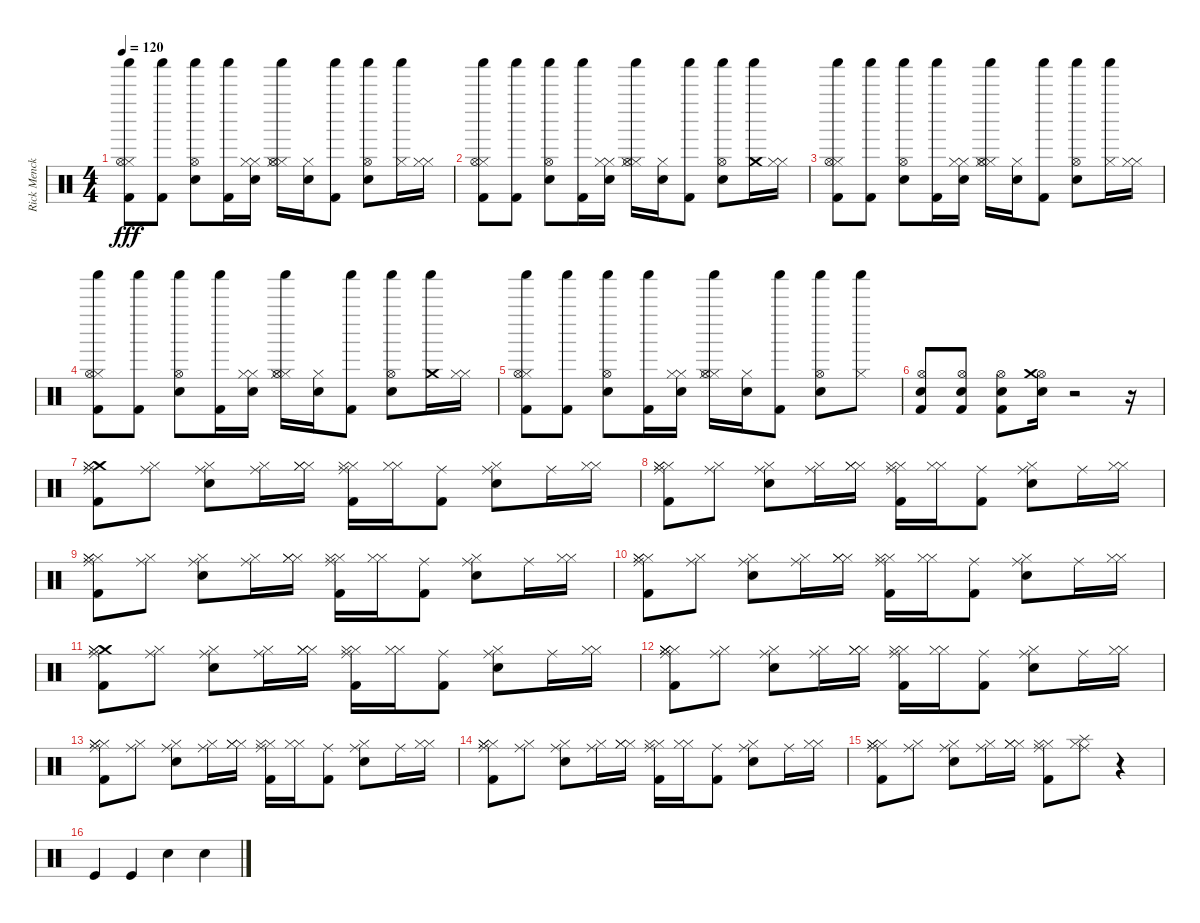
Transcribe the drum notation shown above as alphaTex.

\track ("Rick Menck" "Rick Menck") {instrument percussion}
\staff {score}
\articulation defaults
\ts (4 4)
\tempo 120
\clef neutral
\ks c
("Shaker (hit)" "Kick (hit) 2" "Hi-Hat (closed)" "Hi-Hat (open)").8{dy fff} ("Shaker (hit)" "Kick (hit) 2").8 ("Shaker (hit)" "Snare (hit) 2" "Hi-Hat (open)").8 ("Shaker (hit)" "Kick (hit) 2").16 ("Hi-Hat (closed)" "Snare (hit) 2" "Hi-Hat (closed)").16 ("Shaker (hit)" "Hi-Hat (closed)" "Hi-Hat (open)" "Hi-Hat (closed)").16 ("Hi-Hat (closed)" "Snare (hit) 2").16 ("Shaker (hit)" "Kick (hit) 2").8 ("Shaker (hit)" "Snare (hit) 2" "Hi-Hat (open)").8 ("Shaker (hit)" "Hi-Hat (closed)").16 ("Hi-Hat (closed)" "Hi-Hat (closed)").16 |
("Shaker (hit)" "Kick (hit) 2" "Hi-Hat (closed)" "Hi-Hat (open)").8 ("Shaker (hit)" "Kick (hit) 2").8 ("Shaker (hit)" "Snare (hit) 2" "Hi-Hat (open)").8 ("Shaker (hit)" "Kick (hit) 2").16 ("Hi-Hat (closed)" "Snare (hit) 2" "Hi-Hat (closed)").16 ("Shaker (hit)" "Hi-Hat (closed)" "Hi-Hat (open)" "Hi-Hat (closed)").16 ("Hi-Hat (closed)" "Snare (hit) 2").16 ("Shaker (hit)" "Kick (hit) 2").8 ("Shaker (hit)" "Snare (hit) 2" "Hi-Hat (open)").8 ("Shaker (hit)" "Crash medium (hit)").16 ("Hi-Hat (closed)" "Hi-Hat (closed)").16 |
("Shaker (hit)" "Kick (hit) 2" "Hi-Hat (closed)" "Hi-Hat (open)").8 ("Shaker (hit)" "Kick (hit) 2").8 ("Shaker (hit)" "Snare (hit) 2" "Hi-Hat (open)").8 ("Shaker (hit)" "Kick (hit) 2").16 ("Hi-Hat (closed)" "Snare (hit) 2" "Hi-Hat (closed)").16 ("Shaker (hit)" "Hi-Hat (closed)" "Hi-Hat (open)" "Hi-Hat (closed)").16 ("Hi-Hat (closed)" "Snare (hit) 2").16 ("Shaker (hit)" "Kick (hit) 2").8 ("Shaker (hit)" "Snare (hit) 2" "Hi-Hat (open)").8 ("Shaker (hit)" "Hi-Hat (closed)").16 ("Hi-Hat (closed)" "Hi-Hat (closed)").16 |
("Shaker (hit)" "Kick (hit) 2" "Hi-Hat (closed)" "Hi-Hat (open)").8 ("Shaker (hit)" "Kick (hit) 2").8 ("Shaker (hit)" "Snare (hit) 2" "Hi-Hat (open)").8 ("Shaker (hit)" "Kick (hit) 2").16 ("Hi-Hat (closed)" "Snare (hit) 2" "Hi-Hat (closed)").16 ("Shaker (hit)" "Hi-Hat (closed)" "Hi-Hat (open)" "Hi-Hat (closed)").16 ("Hi-Hat (closed)" "Snare (hit) 2").16 ("Shaker (hit)" "Kick (hit) 2").8 ("Shaker (hit)" "Snare (hit) 2" "Hi-Hat (open)").8 ("Shaker (hit)" "Crash medium (hit)").16 ("Hi-Hat (closed)" "Hi-Hat (closed)").16 |
("Shaker (hit)" "Kick (hit) 2" "Hi-Hat (closed)" "Hi-Hat (open)").8 ("Shaker (hit)" "Kick (hit) 2").8 ("Shaker (hit)" "Snare (hit) 2" "Hi-Hat (open)").8 ("Shaker (hit)" "Kick (hit) 2").16 ("Hi-Hat (closed)" "Snare (hit) 2" "Hi-Hat (closed)").16 ("Shaker (hit)" "Hi-Hat (closed)" "Hi-Hat (open)" "Hi-Hat (closed)").16 ("Hi-Hat (closed)" "Snare (hit) 2").16 ("Shaker (hit)" "Kick (hit) 2").8 ("Shaker (hit)" "Snare (hit) 2" "Hi-Hat (open)").8 ("Shaker (hit)" "Hi-Hat (closed)").8 |
("Hi-Hat (open)" "Kick (hit) 2" "Snare (hit) 2").8 ("Hi-Hat (open)" "Kick (hit) 2" "Snare (hit) 2").8 ("Hi-Hat (open)" "Kick (hit) 2" "Snare (hit) 2").8 ("Hi-Hat (open)" "Crash medium (hit)" "Snare (hit) 2").16 r.2 r.16 |
("Ride (middle)" "Crash medium (hit)" "Kick (hit) 2" "Hi-Hat (closed)" "Hi-Hat (closed)").8 ("Ride (middle)" "Hi-Hat (closed)").8 ("Ride (middle)" "Snare (hit) 2" "Hi-Hat (closed)").8 ("Ride (middle)" "Hi-Hat (closed)").16 ("Hi-Hat (closed)" "Hi-Hat (closed)" "Hi-Hat (closed)").16 ("Ride (middle)" "Kick (hit) 2" "Hi-Hat (closed)" "Hi-Hat (closed)").16 ("Hi-Hat (closed)" "Hi-Hat (closed)").16 ("Ride (middle)" "Kick (hit) 2").8 ("Ride (middle)" "Snare (hit) 2" "Hi-Hat (closed)").8 "Ride (middle)".16 ("Hi-Hat (closed)" "Hi-Hat (closed)").16 |
("Ride (middle)" "Hi-Hat (closed)" "Kick (hit) 2" "Hi-Hat (closed)" "Hi-Hat (closed)").8 ("Ride (middle)" "Hi-Hat (closed)").8 ("Ride (middle)" "Snare (hit) 2" "Hi-Hat (closed)").8 ("Ride (middle)" "Hi-Hat (closed)").16 ("Hi-Hat (closed)" "Hi-Hat (closed)" "Hi-Hat (closed)").16 ("Ride (middle)" "Kick (hit) 2" "Hi-Hat (closed)" "Hi-Hat (closed)").16 ("Hi-Hat (closed)" "Hi-Hat (closed)").16 ("Ride (middle)" "Kick (hit) 2").8 ("Ride (middle)" "Snare (hit) 2" "Hi-Hat (closed)").8 "Ride (middle)".16 ("Hi-Hat (closed)" "Hi-Hat (closed)").16 |
("Ride (middle)" "Hi-Hat (closed)" "Kick (hit) 2" "Hi-Hat (closed)" "Hi-Hat (closed)").8 ("Ride (middle)" "Hi-Hat (closed)").8 ("Ride (middle)" "Snare (hit) 2" "Hi-Hat (closed)").8 ("Ride (middle)" "Hi-Hat (closed)").16 ("Hi-Hat (closed)" "Hi-Hat (closed)" "Hi-Hat (closed)").16 ("Ride (middle)" "Kick (hit) 2" "Hi-Hat (closed)" "Hi-Hat (closed)").16 ("Hi-Hat (closed)" "Hi-Hat (closed)").16 ("Ride (middle)" "Kick (hit) 2").8 ("Ride (middle)" "Snare (hit) 2" "Hi-Hat (closed)").8 "Ride (middle)".16 ("Hi-Hat (closed)" "Hi-Hat (closed)").16 |
("Ride (middle)" "Hi-Hat (closed)" "Kick (hit) 2" "Hi-Hat (closed)" "Hi-Hat (closed)").8 ("Ride (middle)" "Hi-Hat (closed)").8 ("Ride (middle)" "Snare (hit) 2" "Hi-Hat (closed)").8 ("Ride (middle)" "Hi-Hat (closed)").16 ("Hi-Hat (closed)" "Hi-Hat (closed)" "Hi-Hat (closed)").16 ("Ride (middle)" "Kick (hit) 2" "Hi-Hat (closed)" "Hi-Hat (closed)").16 ("Hi-Hat (closed)" "Hi-Hat (closed)").16 ("Ride (middle)" "Kick (hit) 2").8 ("Ride (middle)" "Snare (hit) 2" "Hi-Hat (closed)").8 "Ride (middle)".16 ("Hi-Hat (closed)" "Hi-Hat (closed)").16 |
("Ride (middle)" "Crash medium (hit)" "Kick (hit) 2" "Hi-Hat (closed)" "Hi-Hat (closed)").8 ("Ride (middle)" "Hi-Hat (closed)").8 ("Ride (middle)" "Snare (hit) 2" "Hi-Hat (closed)").8 ("Ride (middle)" "Hi-Hat (closed)").16 ("Hi-Hat (closed)" "Hi-Hat (closed)" "Hi-Hat (closed)").16 ("Ride (middle)" "Kick (hit) 2" "Hi-Hat (closed)" "Hi-Hat (closed)").16 ("Hi-Hat (closed)" "Hi-Hat (closed)").16 ("Ride (middle)" "Kick (hit) 2").8 ("Ride (middle)" "Snare (hit) 2" "Hi-Hat (closed)").8 "Ride (middle)".16 ("Hi-Hat (closed)" "Hi-Hat (closed)").16 |
("Ride (middle)" "Hi-Hat (closed)" "Hi-Hat (closed)" "Kick (hit) 2" "Hi-Hat (closed)" "Hi-Hat (closed)").8 ("Ride (middle)" "Hi-Hat (closed)").8 ("Ride (middle)" "Snare (hit) 2" "Hi-Hat (closed)").8 ("Ride (middle)" "Hi-Hat (closed)").16 ("Hi-Hat (closed)" "Hi-Hat (closed)" "Hi-Hat (closed)").16 ("Ride (middle)" "Kick (hit) 2" "Hi-Hat (closed)" "Hi-Hat (closed)").16 ("Hi-Hat (closed)" "Hi-Hat (closed)").16 ("Ride (middle)" "Kick (hit) 2").8 ("Ride (middle)" "Snare (hit) 2" "Hi-Hat (closed)").8 "Ride (middle)".16 ("Hi-Hat (closed)" "Hi-Hat (closed)").16 |
("Ride (middle)" "Hi-Hat (closed)" "Kick (hit) 2" "Hi-Hat (closed)" "Hi-Hat (closed)").8 ("Ride (middle)" "Hi-Hat (closed)").8 ("Ride (middle)" "Snare (hit) 2" "Hi-Hat (closed)").8 ("Ride (middle)" "Hi-Hat (closed)").16 ("Hi-Hat (closed)" "Hi-Hat (closed)" "Hi-Hat (closed)").16 ("Ride (middle)" "Kick (hit) 2" "Hi-Hat (closed)" "Hi-Hat (closed)").16 ("Hi-Hat (closed)" "Hi-Hat (closed)").16 ("Ride (middle)" "Kick (hit) 2").8 ("Ride (middle)" "Snare (hit) 2" "Hi-Hat (closed)").8 "Ride (middle)".16 ("Hi-Hat (closed)" "Hi-Hat (closed)").16 |
("Ride (middle)" "Hi-Hat (closed)" "Kick (hit) 2" "Hi-Hat (closed)" "Hi-Hat (closed)").8 ("Ride (middle)" "Hi-Hat (closed)").8 ("Ride (middle)" "Snare (hit) 2" "Hi-Hat (closed)").8 ("Ride (middle)" "Hi-Hat (closed)").16 ("Hi-Hat (closed)" "Hi-Hat (closed)" "Hi-Hat (closed)").16 ("Ride (middle)" "Kick (hit) 2" "Hi-Hat (closed)" "Hi-Hat (closed)").16 ("Hi-Hat (closed)" "Hi-Hat (closed)").16 ("Ride (middle)" "Kick (hit) 2").8 ("Ride (middle)" "Snare (hit) 2" "Hi-Hat (closed)").8 "Ride (middle)".16 ("Hi-Hat (closed)" "Hi-Hat (closed)").16 |
("Ride (middle)" "Hi-Hat (closed)" "Kick (hit) 2" "Hi-Hat (closed)" "Hi-Hat (closed)").8 ("Ride (middle)" "Hi-Hat (closed)").8 ("Ride (middle)" "Snare (hit) 2" "Hi-Hat (closed)").8 ("Ride (middle)" "Hi-Hat (closed)").16 ("Hi-Hat (closed)" "Hi-Hat (closed)" "Hi-Hat (closed)").16 ("Ride (middle)" "Kick (hit) 2" "Hi-Hat (closed)" "Hi-Hat (closed)").8 ("Ride (middle)" "Hi-Hat (closed)" "Splash (hit)").8 r.4 |
"Kick (hit)".4 "Kick (hit)".4 "Snare (hit) 2".4 "Snare (hit) 2".4
